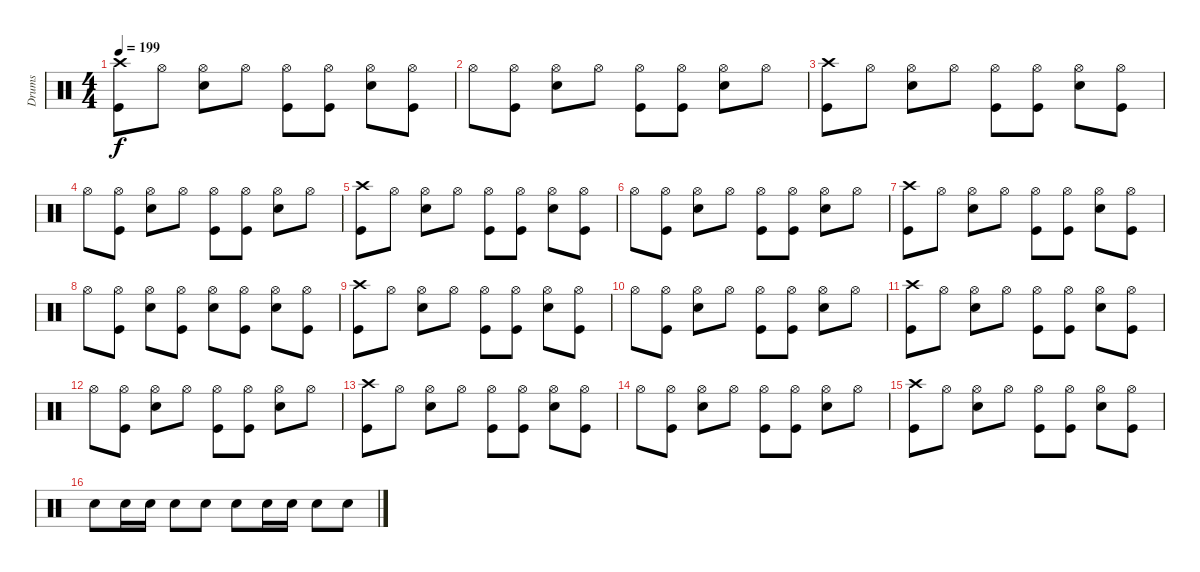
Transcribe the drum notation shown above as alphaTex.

\track ("Drums" "Drums") {instrument percussion}
\staff {score}
\articulation defaults
\ts (4 4)
\tempo 199
\clef neutral
\ks c
("Kick (hit)" "Crash high (hit)").8{dy f} "Hi-Hat (open)".8 ("Hi-Hat (open)" "Snare (hit) 2").8 "Hi-Hat (open)".8 ("Hi-Hat (open)" "Kick (hit)").8 ("Hi-Hat (open)" "Kick (hit)").8 ("Hi-Hat (open)" "Snare (hit) 2").8 ("Hi-Hat (open)" "Kick (hit)").8 |
"Hi-Hat (open)".8 ("Kick (hit)" "Hi-Hat (open)").8 ("Hi-Hat (open)" "Snare (hit) 2").8 "Hi-Hat (open)".8 ("Hi-Hat (open)" "Kick (hit)").8 ("Kick (hit)" "Hi-Hat (open)").8 ("Hi-Hat (open)" "Snare (hit) 2").8 "Hi-Hat (open)".8 |
("Kick (hit)" "Crash high (hit)").8 "Hi-Hat (open)".8 ("Hi-Hat (open)" "Snare (hit) 2").8 "Hi-Hat (open)".8 ("Hi-Hat (open)" "Kick (hit)").8 ("Hi-Hat (open)" "Kick (hit)").8 ("Hi-Hat (open)" "Snare (hit) 2").8 ("Hi-Hat (open)" "Kick (hit)").8 |
"Hi-Hat (open)".8 ("Kick (hit)" "Hi-Hat (open)").8 ("Hi-Hat (open)" "Snare (hit) 2").8 "Hi-Hat (open)".8 ("Hi-Hat (open)" "Kick (hit)").8 ("Kick (hit)" "Hi-Hat (open)").8 ("Hi-Hat (open)" "Snare (hit) 2").8 "Hi-Hat (open)".8 |
("Kick (hit)" "Crash high (hit)").8 "Hi-Hat (open)".8 ("Hi-Hat (open)" "Snare (hit) 2").8 "Hi-Hat (open)".8 ("Hi-Hat (open)" "Kick (hit)").8 ("Hi-Hat (open)" "Kick (hit)").8 ("Hi-Hat (open)" "Snare (hit) 2").8 ("Hi-Hat (open)" "Kick (hit)").8 |
"Hi-Hat (open)".8 ("Kick (hit)" "Hi-Hat (open)").8 ("Hi-Hat (open)" "Snare (hit) 2").8 "Hi-Hat (open)".8 ("Hi-Hat (open)" "Kick (hit)").8 ("Kick (hit)" "Hi-Hat (open)").8 ("Hi-Hat (open)" "Snare (hit) 2").8 "Hi-Hat (open)".8 |
("Kick (hit)" "Crash high (hit)").8 "Hi-Hat (open)".8 ("Hi-Hat (open)" "Snare (hit) 2").8 "Hi-Hat (open)".8 ("Hi-Hat (open)" "Kick (hit)").8 ("Hi-Hat (open)" "Kick (hit)").8 ("Hi-Hat (open)" "Snare (hit) 2").8 ("Hi-Hat (open)" "Kick (hit)").8 |
"Hi-Hat (open)".8 ("Hi-Hat (open)" "Kick (hit)").8 ("Hi-Hat (open)" "Snare (hit) 2").8 ("Hi-Hat (open)" "Kick (hit)").8 ("Hi-Hat (open)" "Snare (hit) 2").8 ("Hi-Hat (open)" "Kick (hit)").8 ("Hi-Hat (open)" "Snare (hit) 2").8 ("Hi-Hat (open)" "Kick (hit)").8 |
("Kick (hit)" "Crash high (hit)").8 "Hi-Hat (open)".8 ("Hi-Hat (open)" "Snare (hit) 2").8 "Hi-Hat (open)".8 ("Hi-Hat (open)" "Kick (hit)").8 ("Hi-Hat (open)" "Kick (hit)").8 ("Hi-Hat (open)" "Snare (hit) 2").8 ("Hi-Hat (open)" "Kick (hit)").8 |
"Hi-Hat (open)".8 ("Kick (hit)" "Hi-Hat (open)").8 ("Hi-Hat (open)" "Snare (hit) 2").8 "Hi-Hat (open)".8 ("Hi-Hat (open)" "Kick (hit)").8 ("Kick (hit)" "Hi-Hat (open)").8 ("Hi-Hat (open)" "Snare (hit) 2").8 "Hi-Hat (open)".8 |
("Kick (hit)" "Crash high (hit)").8 "Hi-Hat (open)".8 ("Hi-Hat (open)" "Snare (hit) 2").8 "Hi-Hat (open)".8 ("Hi-Hat (open)" "Kick (hit)").8 ("Hi-Hat (open)" "Kick (hit)").8 ("Hi-Hat (open)" "Snare (hit) 2").8 ("Hi-Hat (open)" "Kick (hit)").8 |
"Hi-Hat (open)".8 ("Kick (hit)" "Hi-Hat (open)").8 ("Hi-Hat (open)" "Snare (hit) 2").8 "Hi-Hat (open)".8 ("Hi-Hat (open)" "Kick (hit)").8 ("Kick (hit)" "Hi-Hat (open)").8 ("Hi-Hat (open)" "Snare (hit) 2").8 "Hi-Hat (open)".8 |
("Kick (hit)" "Crash high (hit)").8 "Hi-Hat (open)".8 ("Hi-Hat (open)" "Snare (hit) 2").8 "Hi-Hat (open)".8 ("Hi-Hat (open)" "Kick (hit)").8 ("Hi-Hat (open)" "Kick (hit)").8 ("Hi-Hat (open)" "Snare (hit) 2").8 ("Hi-Hat (open)" "Kick (hit)").8 |
"Hi-Hat (open)".8 ("Kick (hit)" "Hi-Hat (open)").8 ("Hi-Hat (open)" "Snare (hit) 2").8 "Hi-Hat (open)".8 ("Hi-Hat (open)" "Kick (hit)").8 ("Kick (hit)" "Hi-Hat (open)").8 ("Hi-Hat (open)" "Snare (hit) 2").8 "Hi-Hat (open)".8 |
("Kick (hit)" "Crash high (hit)").8 "Hi-Hat (open)".8 ("Hi-Hat (open)" "Snare (hit) 2").8 "Hi-Hat (open)".8 ("Hi-Hat (open)" "Kick (hit)").8 ("Hi-Hat (open)" "Kick (hit)").8 ("Hi-Hat (open)" "Snare (hit) 2").8 ("Hi-Hat (open)" "Kick (hit)").8 |
"Snare (hit) 2".8 "Snare (hit) 2".16 "Snare (hit) 2".16 "Snare (hit) 2".8 "Snare (hit) 2".8 "Snare (hit) 2".8 "Snare (hit) 2".16 "Snare (hit) 2".16 "Snare (hit) 2".8 "Snare (hit) 2".8
